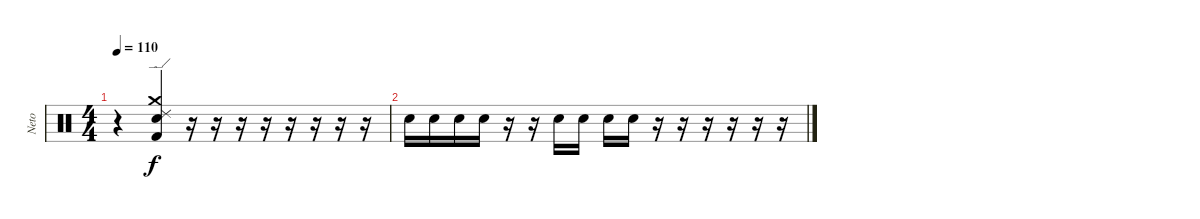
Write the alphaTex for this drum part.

\track ("Neto" "Neto") {instrument percussion}
\staff {score}
\articulation defaults
\ts (4 4)
\tempo 110
\clef neutral
\ks c
r.4{dy f} ("Ride (edge) 2" "Crash medium (hit)" "Electric Snare (hit)" "Kick (hit) 2").4 r.16 r.16 r.16 r.16 r.16 r.16 r.16 r.16 |
"Electric Snare (hit)".16 "Electric Snare (hit)".16 "Electric Snare (hit)".16 "Electric Snare (hit)".16 r.16 r.16 "Electric Snare (hit)".16 "Electric Snare (hit)".16 "Electric Snare (hit)".16 "Electric Snare (hit)".16 r.16 r.16 r.16 r.16 r.16 r.16
